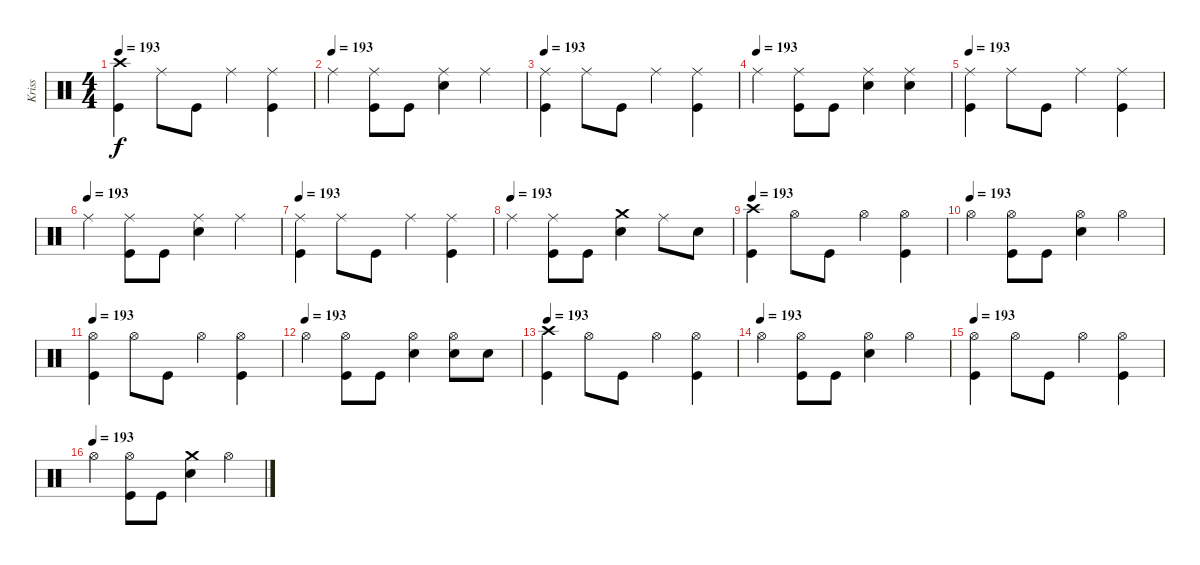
\track ("Kriss" "Kriss") {instrument percussion}
\staff {score}
\articulation defaults
\ts (4 4)
\tempo 193
\clef neutral
\ks c
("Crash high (hit)" "Kick (hit)").4{dy f} "Ride (middle)".8 "Kick (hit)".8 "Ride (middle)".4 ("Ride (middle)" "Kick (hit)").4 |
\tempo (193)
"Ride (middle)".4 ("Ride (middle)" "Kick (hit)").8 "Kick (hit)".8 ("Ride (middle)" "Snare (hit) 2").4 "Ride (middle)".4 |
\tempo 193
("Ride (middle)" "Kick (hit)").4 "Ride (middle)".8 "Kick (hit)".8 "Ride (middle)".4 ("Ride (middle)" "Kick (hit)").4 |
\tempo (193)
"Ride (middle)".4 ("Ride (middle)" "Kick (hit)").8 "Kick (hit)".8 ("Ride (middle)" "Snare (hit) 2").4 ("Ride (middle)" "Snare (hit) 2").4 |
\tempo 193
("Ride (middle)" "Kick (hit)").4 "Ride (middle)".8 "Kick (hit)".8 "Ride (middle)".4 ("Ride (middle)" "Kick (hit)").4 |
\tempo (193)
"Ride (middle)".4 ("Ride (middle)" "Kick (hit)").8 "Kick (hit)".8 ("Ride (middle)" "Snare (hit) 2").4 "Ride (middle)".4 |
\tempo 193
("Ride (middle)" "Kick (hit)").4 "Ride (middle)".8 "Kick (hit)".8 "Ride (middle)".4 ("Ride (middle)" "Kick (hit)").4 |
\tempo (193)
"Ride (middle)".4 ("Ride (middle)" "Kick (hit)").8 "Kick (hit)".8 ("Crash medium (hit)" "Snare (hit) 2").4 "Ride (middle)".8 "Snare (hit) 2".8 |
\tempo 193
("Crash high (hit)" "Kick (hit)").4 "Hi-Hat (open)".8 "Kick (hit)".8 "Hi-Hat (open)".4 ("Hi-Hat (open)" "Kick (hit)").4 |
\tempo (193)
"Hi-Hat (open)".4 ("Hi-Hat (open)" "Kick (hit)").8 "Kick (hit)".8 ("Hi-Hat (open)" "Snare (hit) 2").4 "Hi-Hat (open)".4 |
\tempo 193
("Hi-Hat (open)" "Kick (hit)").4 "Hi-Hat (open)".8 "Kick (hit)".8 "Hi-Hat (open)".4 ("Hi-Hat (open)" "Kick (hit)").4 |
\tempo (193)
"Hi-Hat (open)".4 ("Hi-Hat (open)" "Kick (hit)").8 "Kick (hit)".8 ("Hi-Hat (open)" "Snare (hit) 2").4 ("Hi-Hat (open)" "Snare (hit) 2").8 "Snare (hit) 2".8 |
\tempo 193
("Crash high (hit)" "Kick (hit)").4 "Hi-Hat (open)".8 "Kick (hit)".8 "Hi-Hat (open)".4 ("Hi-Hat (open)" "Kick (hit)").4 |
\tempo (193)
"Hi-Hat (open)".4 ("Hi-Hat (open)" "Kick (hit)").8 "Kick (hit)".8 ("Hi-Hat (open)" "Snare (hit) 2").4 "Hi-Hat (open)".4 |
\tempo 193
("Hi-Hat (open)" "Kick (hit)").4 "Hi-Hat (open)".8 "Kick (hit)".8 "Hi-Hat (open)".4 ("Hi-Hat (open)" "Kick (hit)").4 |
\tempo (193)
"Hi-Hat (open)".4 ("Hi-Hat (open)" "Kick (hit)").8 "Kick (hit)".8 ("Crash medium (hit)" "Snare (hit) 2").4 "Hi-Hat (open)".4
